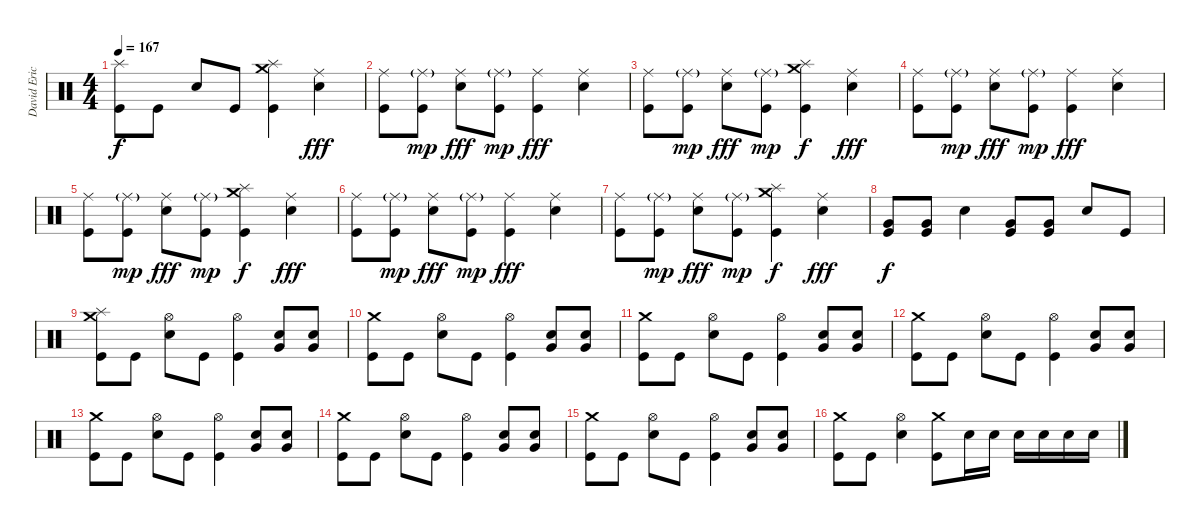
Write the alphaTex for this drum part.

\track ("David Eric Grohl" "David Eric") {instrument percussion}
\staff {score}
\articulation defaults
\ts (4 4)
\tempo 167
\clef neutral
\ks c
("Splash (hit)" "Kick (hit)").8{dy f} "Kick (hit)".8 "Snare (hit) 2".8 "Kick (hit)".8 ("Splash (hit)" "Crash medium (hit)" "Kick (hit)").4 ("Ride (middle)" "Snare (hit) 2").4{dy fff} |
("Ride (middle)" "Kick (hit)").8 ("Ride (middle)"{g} "Kick (hit)").8{dy mp} ("Ride (middle)" "Snare (hit) 2").8{dy fff} ("Ride (middle)"{g} "Kick (hit)").8{dy mp} ("Ride (middle)" "Kick (hit)").4{dy fff} ("Ride (middle)" "Snare (hit) 2").4 |
("Ride (middle)" "Kick (hit)").8 ("Ride (middle)"{g} "Kick (hit)").8{dy mp} ("Ride (middle)" "Snare (hit) 2").8{dy fff} ("Ride (middle)"{g} "Kick (hit)").8{dy mp} ("Splash (hit)" "Crash medium (hit)" "Kick (hit)").4{dy f} ("Ride (middle)" "Snare (hit) 2").4{dy fff} |
("Ride (middle)" "Kick (hit)").8 ("Ride (middle)"{g} "Kick (hit)").8{dy mp} ("Ride (middle)" "Snare (hit) 2").8{dy fff} ("Ride (middle)"{g} "Kick (hit)").8{dy mp} ("Ride (middle)" "Kick (hit)").4{dy fff} ("Ride (middle)" "Snare (hit) 2").4 |
("Ride (middle)" "Kick (hit)").8 ("Ride (middle)"{g} "Kick (hit)").8{dy mp} ("Ride (middle)" "Snare (hit) 2").8{dy fff} ("Ride (middle)"{g} "Kick (hit)").8{dy mp} ("Splash (hit)" "Crash medium (hit)" "Kick (hit)").4{dy f} ("Ride (middle)" "Snare (hit) 2").4{dy fff} |
("Ride (middle)" "Kick (hit)").8 ("Ride (middle)"{g} "Kick (hit)").8{dy mp} ("Ride (middle)" "Snare (hit) 2").8{dy fff} ("Ride (middle)"{g} "Kick (hit)").8{dy mp} ("Ride (middle)" "Kick (hit)").4{dy fff} ("Ride (middle)" "Snare (hit) 2").4 |
("Ride (middle)" "Kick (hit)").8 ("Ride (middle)"{g} "Kick (hit)").8{dy mp} ("Ride (middle)" "Snare (hit) 2").8{dy fff} ("Ride (middle)"{g} "Kick (hit)").8{dy mp} ("Splash (hit)" "Crash medium (hit)" "Kick (hit)").4{dy f} ("Ride (middle)" "Snare (hit) 2").4{dy fff} |
("Very Low Tom (hit)" "Kick (hit)").8{dy f} ("Very Low Tom (hit)" "Kick (hit)").8 "Snare (hit) 2".4 ("Very Low Tom (hit)" "Kick (hit)").8 ("Very Low Tom (hit)" "Kick (hit)").8 "Snare (hit) 2".8 "Kick (hit)".8 |
("Splash (hit)" "Crash medium (hit)" "Kick (hit)").8 "Kick (hit)".8 ("Hi-Hat (open)" "Snare (hit) 2").8 "Kick (hit)".8 ("Hi-Hat (open)" "Kick (hit)").4 ("Snare (hit) 2" "Very Low Tom (hit)").8 ("Snare (hit) 2" "Very Low Tom (hit)").8 |
("Crash medium (hit)" "Kick (hit)").8 "Kick (hit)".8 ("Hi-Hat (open)" "Snare (hit) 2").8 "Kick (hit)".8 ("Hi-Hat (open)" "Kick (hit)").4 ("Snare (hit) 2" "Very Low Tom (hit)").8 ("Snare (hit) 2" "Very Low Tom (hit)").8 |
("Crash medium (hit)" "Kick (hit)").8 "Kick (hit)".8 ("Hi-Hat (open)" "Snare (hit) 2").8 "Kick (hit)".8 ("Hi-Hat (open)" "Kick (hit)").4 ("Snare (hit) 2" "Very Low Tom (hit)").8 ("Snare (hit) 2" "Very Low Tom (hit)").8 |
("Crash medium (hit)" "Kick (hit)").8 "Kick (hit)".8 ("Hi-Hat (open)" "Snare (hit) 2").8 "Kick (hit)".8 ("Hi-Hat (open)" "Kick (hit)").4 ("Snare (hit) 2" "Very Low Tom (hit)").8 ("Snare (hit) 2" "Very Low Tom (hit)").8 |
("Crash medium (hit)" "Kick (hit)").8 "Kick (hit)".8 ("Hi-Hat (open)" "Snare (hit) 2").8 "Kick (hit)".8 ("Hi-Hat (open)" "Kick (hit)").4 ("Snare (hit) 2" "Very Low Tom (hit)").8 ("Snare (hit) 2" "Very Low Tom (hit)").8 |
("Crash medium (hit)" "Kick (hit)").8 "Kick (hit)".8 ("Hi-Hat (open)" "Snare (hit) 2").8 "Kick (hit)".8 ("Hi-Hat (open)" "Kick (hit)").4 ("Snare (hit) 2" "Very Low Tom (hit)").8 ("Snare (hit) 2" "Very Low Tom (hit)").8 |
("Crash medium (hit)" "Kick (hit)").8 "Kick (hit)".8 ("Hi-Hat (open)" "Snare (hit) 2").8 "Kick (hit)".8 ("Hi-Hat (open)" "Kick (hit)").4 ("Snare (hit) 2" "Very Low Tom (hit)").8 ("Snare (hit) 2" "Very Low Tom (hit)").8 |
("Crash medium (hit)" "Kick (hit)").8 "Kick (hit)".8 ("Hi-Hat (open)" "Snare (hit) 2").4 ("Crash medium (hit)" "Kick (hit)").8 "Snare (hit) 2".16 "Snare (hit) 2".16 "Snare (hit) 2".16 "Snare (hit) 2".16 "Snare (hit) 2".16 "Snare (hit) 2".16
